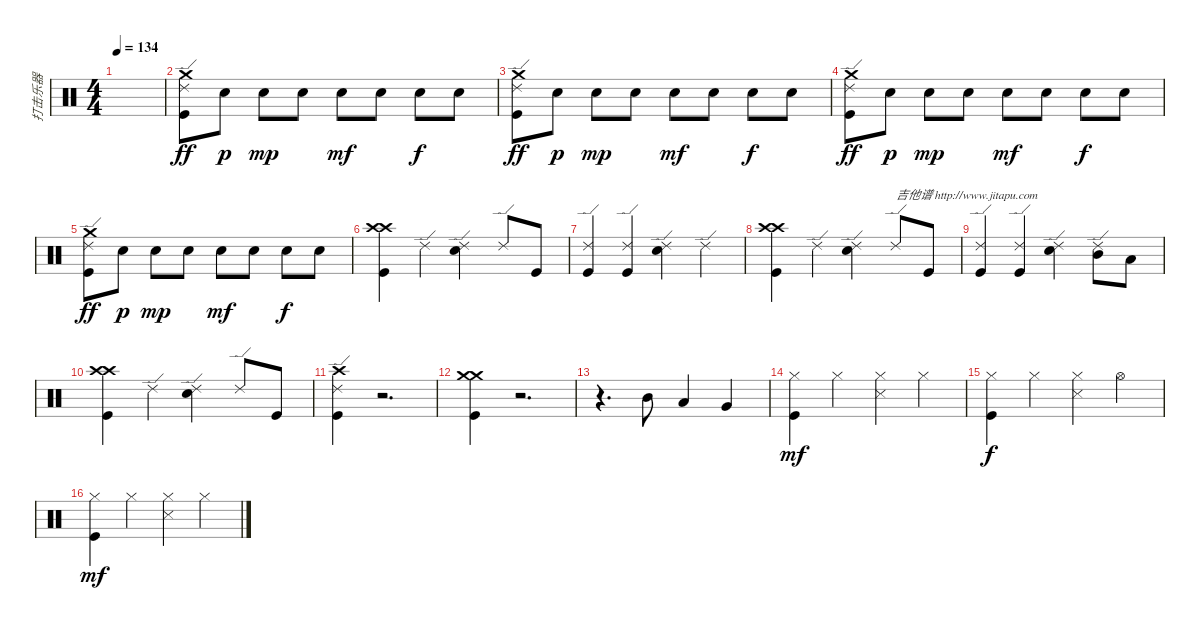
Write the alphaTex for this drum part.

\track ("打击乐器" "打击乐器") {instrument percussion}
\staff {score}
\articulation defaults
\ts (4 4)
\tempo 134
\clef neutral
\ks c
|
("Crash medium (hit)" "Ride (edge) 2" "Kick (hit)").8{dy ff} "Electric Snare (hit)".8{dy p} "Electric Snare (hit)".8{dy mp} "Electric Snare (hit)".8 "Electric Snare (hit)".8{dy mf} "Electric Snare (hit)".8 "Electric Snare (hit)".8{dy f} "Electric Snare (hit)".8 |
("Crash medium (hit)" "Ride (edge) 2" "Kick (hit)").8{dy ff} "Electric Snare (hit)".8{dy p} "Electric Snare (hit)".8{dy mp} "Electric Snare (hit)".8 "Electric Snare (hit)".8{dy mf} "Electric Snare (hit)".8 "Electric Snare (hit)".8{dy f} "Electric Snare (hit)".8 |
("Crash medium (hit)" "Ride (edge) 2" "Kick (hit)").8{dy ff} "Electric Snare (hit)".8{dy p} "Electric Snare (hit)".8{dy mp} "Electric Snare (hit)".8 "Electric Snare (hit)".8{dy mf} "Electric Snare (hit)".8 "Electric Snare (hit)".8{dy f} "Electric Snare (hit)".8 |
("Crash medium (hit)" "Ride (edge) 2" "Kick (hit)").8{dy ff} "Electric Snare (hit)".8{dy p} "Electric Snare (hit)".8{dy mp} "Electric Snare (hit)".8 "Electric Snare (hit)".8{dy mf} "Electric Snare (hit)".8 "Electric Snare (hit)".8{dy f} "Electric Snare (hit)".8 |
("Crash high (hit)" "Crash high (hit)" "Kick (hit)").4 "Ride (edge) 2".4 ("Ride (edge) 2" "Electric Snare (hit)").4 "Ride (edge) 2".8 "Kick (hit)".8 |
("Ride (edge) 2" "Kick (hit)").4 ("Ride (edge) 2" "Kick (hit)").4 ("Ride (edge) 2" "Electric Snare (hit)").4 "Ride (edge) 2".4 |
("Crash high (hit)" "Crash high (hit)" "Kick (hit)").4 "Ride (edge) 2".4 ("Ride (edge) 2" "Electric Snare (hit)").4 "Ride (edge) 2".8{txt "吉他谱 http://www.jitapu.com"} "Kick (hit)".8 |
("Ride (edge) 2" "Kick (hit)").4 ("Ride (edge) 2" "Kick (hit)").4 ("Ride (edge) 2" "Electric Snare (hit)").4 ("Ride (edge) 2" "Mid Tom (hit)").8 "Low Tom (hit)".8 |
("Crash high (hit)" "Crash high (hit)" "Kick (hit)").4 "Ride (edge) 2".4 ("Ride (edge) 2" "Electric Snare (hit)").4 "Ride (edge) 2".8 "Kick (hit)".8 |
("Ride (edge) 2" "Crash high (hit)" "Kick (hit)").4 r.2{d} |
("Kick (hit)" "Crash medium (hit)" "Crash medium (hit)").4 r.2{d} |
r.4{d} "Mid Tom (hit)".8 "Low Tom (hit)".4 "Very Low Tom (hit)".4 |
("Hi-Hat (closed)" "Kick (hit)").4{dy mf} "Hi-Hat (closed)".4 ("Hi-Hat (closed)" "Snare (side stick) 3").4 "Hi-Hat (closed)".4 |
("Hi-Hat (closed)" "Kick (hit)").4{dy f} "Hi-Hat (closed)".4 ("Hi-Hat (closed)" "Snare (side stick) 3").4 "Hi-Hat (open)".4 |
("Hi-Hat (closed)" "Kick (hit)").4{dy mf} "Hi-Hat (closed)".4 ("Hi-Hat (closed)" "Snare (side stick) 3").4 "Hi-Hat (closed)".4
